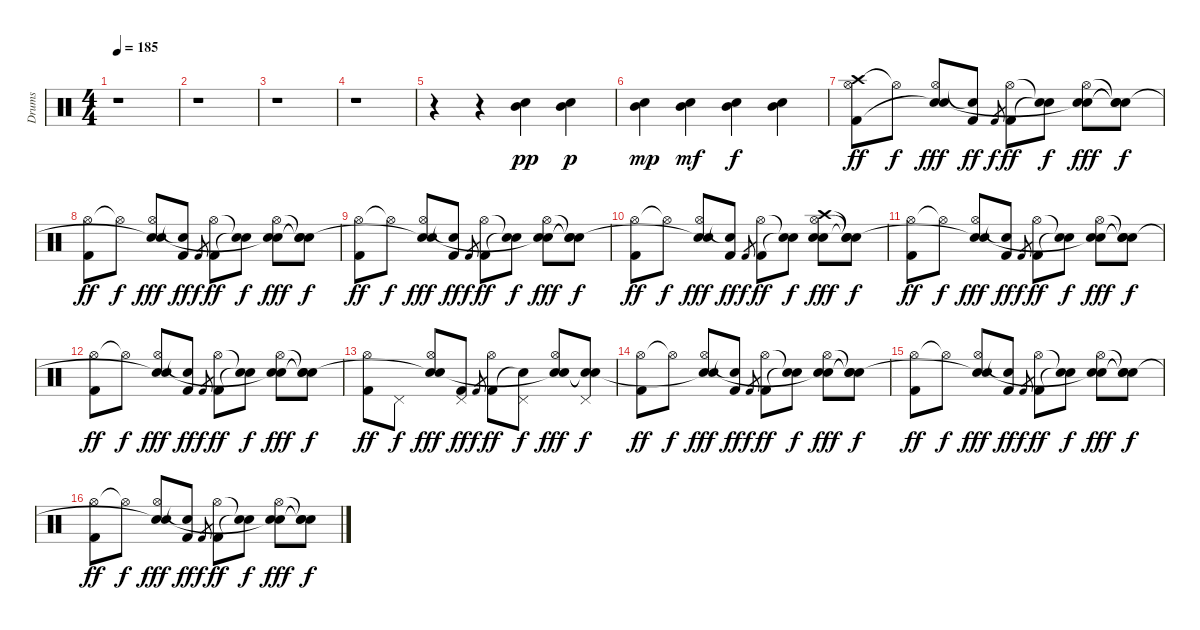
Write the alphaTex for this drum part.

\track ("Drums" "Drums") {instrument percussion}
\staff {score}
\articulation defaults
\ts (4 4)
\tempo 185
\clef neutral
\ks c
r.1{dy ff} |
r.1 |
r.1 |
r.1 |
r.4 r.4 ("Electric Snare (hit)" "Mid Tom (hit)").4{dy pp} ("Electric Snare (hit)" "Mid Tom (hit)").4{dy p} |
("Electric Snare (hit)" "Mid Tom (hit)").4{dy mp} ("Electric Snare (hit)" "Mid Tom (hit)").4{dy mf} ("Electric Snare (hit)" "Mid Tom (hit)").4{dy f} ("Electric Snare (hit)" "Mid Tom (hit)").4 |
("Crash high (hit)" "Hi-Hat (open)" "Kick (hit) 2").8{dy ff} "Hi-Hat (open)"{t}.8{dy f} ("Hi-Hat (open)" "Electric Snare (hit)" "Snare (hit)"{t}).8{dy fff} ("Snare (hit)"{t} "Kick (hit) 2").8{dy ff} "Kick (hit) 2".8{gr dy f} ("Hi-Hat (open)" "Kick (hit) 2").8{dy ff} ("Snare (hit)"{t} "Snare (hit)"{t}).8{dy f} ("Hi-Hat (open)" "Electric Snare (hit)" "Snare (hit)"{t}).8{dy fff} ("Snare (hit)"{t} "Snare (hit)"{t} "Snare (hit)"{t}).8{dy f} |
("Hi-Hat (open)" "Kick (hit) 2").8{dy ff} "Hi-Hat (open)"{t}.8{dy f} ("Hi-Hat (open)" "Electric Snare (hit)" "Snare (hit)"{t}).8{dy fff} ("Snare (hit)"{t} "Kick (hit) 2").8{dy ff} "Kick (hit) 2".8{gr dy f} ("Hi-Hat (open)" "Kick (hit) 2").8{dy ff} ("Snare (hit)"{t} "Snare (hit)"{t}).8{dy f} ("Hi-Hat (open)" "Electric Snare (hit)" "Snare (hit)"{t}).8{dy fff} ("Snare (hit)"{t} "Snare (hit)"{t} "Snare (hit)"{t}).8{dy f} |
("Hi-Hat (open)" "Kick (hit) 2").8{dy ff} "Hi-Hat (open)"{t}.8{dy f} ("Hi-Hat (open)" "Electric Snare (hit)" "Snare (hit)"{t}).8{dy fff} ("Snare (hit)"{t} "Kick (hit) 2").8{dy ff} "Kick (hit) 2".8{gr dy f} ("Hi-Hat (open)" "Kick (hit) 2").8{dy ff} ("Snare (hit)"{t} "Snare (hit)"{t}).8{dy f} ("Hi-Hat (open)" "Electric Snare (hit)" "Snare (hit)"{t}).8{dy fff} ("Snare (hit)"{t} "Snare (hit)"{t} "Snare (hit)"{t}).8{dy f} |
("Hi-Hat (open)" "Kick (hit) 2").8{dy ff} "Hi-Hat (open)"{t}.8{dy f} ("Hi-Hat (open)" "Electric Snare (hit)" "Snare (hit)"{t}).8{dy fff} ("Snare (hit)"{t} "Kick (hit) 2").8{dy ff} "Kick (hit) 2".8{gr dy f} ("Hi-Hat (open)" "Kick (hit) 2").8{dy ff} ("Snare (hit)"{t} "Snare (hit)"{t}).8{dy f} ("Crash high (hit)" "Hi-Hat (open)" "Electric Snare (hit)" "Snare (hit)").8{dy fff} ("Snare (hit)"{t} "Snare (hit)"{t} "Snare (hit)"{t}).8{dy f} |
("Hi-Hat (open)" "Kick (hit) 2").8{dy ff} "Hi-Hat (open)"{t}.8{dy f} ("Hi-Hat (open)" "Electric Snare (hit)" "Snare (hit)"{t}).8{dy fff} ("Snare (hit)"{t} "Kick (hit) 2").8{dy ff} "Kick (hit) 2".8{gr dy f} ("Hi-Hat (open)" "Kick (hit) 2").8{dy ff} ("Snare (hit)"{t} "Snare (hit)"{t}).8{dy f} ("Hi-Hat (open)" "Electric Snare (hit)" "Snare (hit)"{t}).8{dy fff} ("Snare (hit)"{t} "Snare (hit)"{t} "Snare (hit)"{t}).8{dy f} |
("Hi-Hat (open)" "Kick (hit) 2").8{dy ff} "Hi-Hat (open)"{t}.8{dy f} ("Hi-Hat (open)" "Electric Snare (hit)" "Snare (hit)"{t}).8{dy fff} ("Snare (hit)"{t} "Kick (hit) 2").8{dy ff} "Kick (hit) 2".8{gr dy f} ("Hi-Hat (open)" "Kick (hit) 2").8{dy ff} ("Snare (hit)"{t} "Snare (hit)"{t}).8{dy f} ("Hi-Hat (open)" "Electric Snare (hit)" "Snare (hit)"{t}).8{dy fff} ("Snare (hit)"{t} "Snare (hit)"{t} "Snare (hit)"{t}).8{dy f} |
("Hi-Hat (open)" "Kick (hit) 2").8{dy ff} "Pedal Hi-Hat (hit)".8{dy f} ("Hi-Hat (open)" "Electric Snare (hit)" "Snare (hit)"{t}).8{dy fff} ("Pedal Hi-Hat (hit)" "Kick (hit) 2").8{dy ff} "Kick (hit) 2".8{gr dy f} ("Hi-Hat (open)" "Kick (hit) 2").8{dy ff} ("Pedal Hi-Hat (hit)" "Snare (hit)"{t}).8{dy f} ("Hi-Hat (open)" "Electric Snare (hit)" "Snare (hit)"{t}).8{dy fff} ("Pedal Hi-Hat (hit)" "Snare (hit)"{t} "Snare (hit)"{t}).8{dy f} |
("Hi-Hat (open)" "Kick (hit) 2").8{dy ff} "Hi-Hat (open)"{t}.8{dy f} ("Hi-Hat (open)" "Electric Snare (hit)" "Snare (hit)"{t}).8{dy fff} ("Snare (hit)"{t} "Kick (hit) 2").8{dy ff} "Kick (hit) 2".8{gr dy f} ("Hi-Hat (open)" "Kick (hit) 2").8{dy ff} ("Snare (hit)"{t} "Snare (hit)"{t}).8{dy f} ("Hi-Hat (open)" "Electric Snare (hit)" "Snare (hit)"{t}).8{dy fff} ("Snare (hit)"{t} "Snare (hit)"{t} "Snare (hit)"{t}).8{dy f} |
("Hi-Hat (open)" "Kick (hit) 2").8{dy ff} "Hi-Hat (open)"{t}.8{dy f} ("Hi-Hat (open)" "Electric Snare (hit)" "Snare (hit)"{t}).8{dy fff} ("Snare (hit)"{t} "Kick (hit) 2").8{dy ff} "Kick (hit) 2".8{gr dy f} ("Hi-Hat (open)" "Kick (hit) 2").8{dy ff} ("Snare (hit)"{t} "Snare (hit)"{t}).8{dy f} ("Hi-Hat (open)" "Electric Snare (hit)" "Snare (hit)"{t}).8{dy fff} ("Snare (hit)"{t} "Snare (hit)"{t} "Snare (hit)"{t}).8{dy f} |
("Hi-Hat (open)" "Kick (hit) 2").8{dy ff} "Hi-Hat (open)"{t}.8{dy f} ("Hi-Hat (open)" "Electric Snare (hit)" "Snare (hit)"{t}).8{dy fff} ("Snare (hit)"{t} "Kick (hit) 2").8{dy ff} "Kick (hit) 2".8{gr dy f} ("Hi-Hat (open)" "Kick (hit) 2").8{dy ff} ("Snare (hit)"{t} "Snare (hit)"{t}).8{dy f} ("Hi-Hat (open)" "Electric Snare (hit)" "Snare (hit)"{t}).8{dy fff} ("Snare (hit)"{t} "Snare (hit)"{t} "Snare (hit)"{t}).8{dy f}
